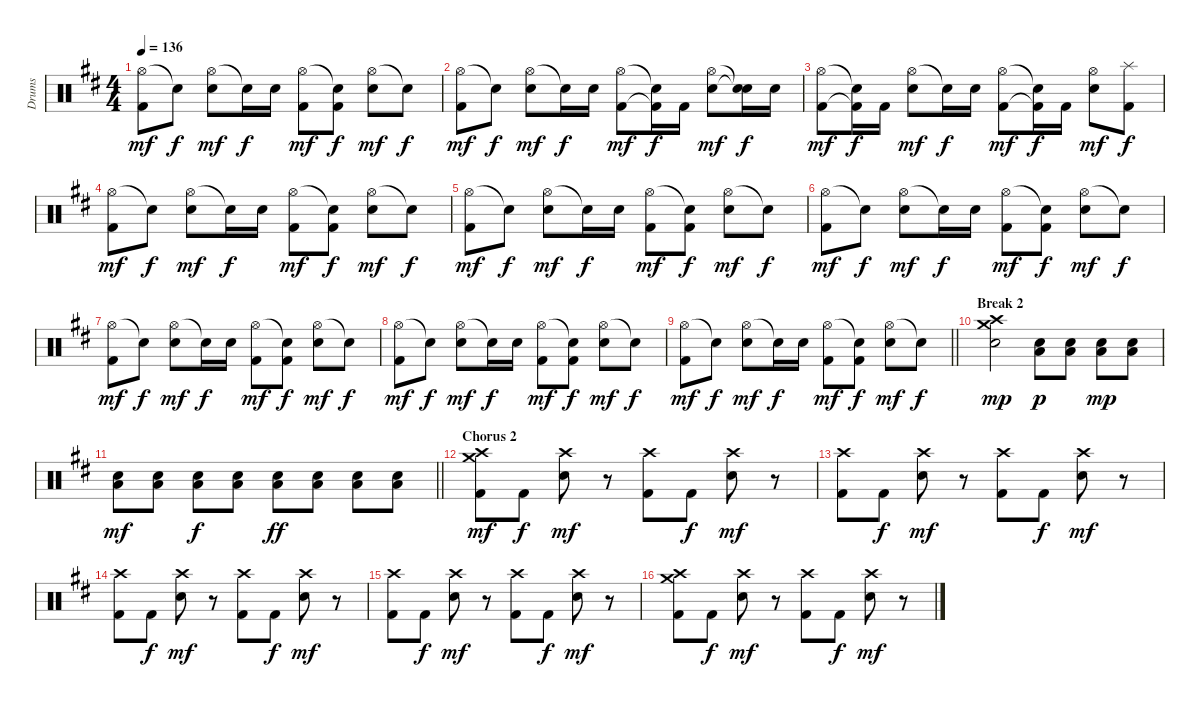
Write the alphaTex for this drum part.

\track ("Drums" "Drums") {instrument percussion}
\staff {score}
\articulation defaults
\ts (4 4)
\tempo 136
\clef neutral
\ks d
("Hi-Hat (open)" "Kick (hit) 2").8{dy mf} "Snare (hit)"{t}.8{dy f} ("Hi-Hat (open)" "Electric Snare (hit)").8{dy mf} "Snare (hit)"{t}.16{dy f} "Electric Snare (hit)".16 ("Hi-Hat (open)" "Kick (hit) 2").8{dy mf} ("Snare (hit)"{t} "Kick (hit) 2").8{dy f} ("Hi-Hat (open)" "Electric Snare (hit)").8{dy mf} "Snare (hit)"{t}.8{dy f} |
("Hi-Hat (open)" "Kick (hit) 2").8{dy mf} "Snare (hit)"{t}.8{dy f} ("Hi-Hat (open)" "Electric Snare (hit)").8{dy mf} "Snare (hit)"{t}.16{dy f} "Electric Snare (hit)".16 ("Hi-Hat (open)" "Kick (hit) 2").8{dy mf} ("Snare (hit)"{t} "Kick (hit) 2"{t}).16{dy f} "Kick (hit) 2".16 ("Hi-Hat (open)" "Electric Snare (hit)").8{dy mf} ("Snare (hit)"{t} "Snare (hit)"{t}).16{dy f} "Electric Snare (hit)".16 |
("Hi-Hat (open)" "Kick (hit) 2").8{dy mf} ("Snare (hit)"{t} "Kick (hit) 2"{t}).16{dy f} "Kick (hit) 2".16 ("Hi-Hat (open)" "Electric Snare (hit)").8{dy mf} "Snare (hit)"{t}.16{dy f} "Electric Snare (hit)".16 ("Hi-Hat (open)" "Kick (hit) 2").8{dy mf} ("Snare (hit)"{t} "Kick (hit) 2"{t}).16{dy f} "Kick (hit) 2".16 ("Hi-Hat (open)" "Electric Snare (hit)").8{dy mf} ("Splash (hit)" "Kick (hit) 2").8{dy f} |
("Hi-Hat (open)" "Kick (hit) 2").8{dy mf} "Snare (hit)"{t}.8{dy f} ("Hi-Hat (open)" "Electric Snare (hit)").8{dy mf} "Snare (hit)"{t}.16{dy f} "Electric Snare (hit)".16 ("Hi-Hat (open)" "Kick (hit) 2").8{dy mf} ("Snare (hit)"{t} "Kick (hit) 2").8{dy f} ("Hi-Hat (open)" "Electric Snare (hit)").8{dy mf} "Snare (hit)"{t}.8{dy f} |
("Hi-Hat (open)" "Kick (hit) 2").8{dy mf} "Snare (hit)"{t}.8{dy f} ("Hi-Hat (open)" "Electric Snare (hit)").8{dy mf} "Snare (hit)"{t}.16{dy f} "Electric Snare (hit)".16 ("Hi-Hat (open)" "Kick (hit) 2").8{dy mf} ("Snare (hit)"{t} "Kick (hit) 2").8{dy f} ("Hi-Hat (open)" "Electric Snare (hit)").8{dy mf} "Snare (hit)"{t}.8{dy f} |
("Hi-Hat (open)" "Kick (hit) 2").8{dy mf} "Snare (hit)"{t}.8{dy f} ("Hi-Hat (open)" "Electric Snare (hit)").8{dy mf} "Snare (hit)"{t}.16{dy f} "Electric Snare (hit)".16 ("Hi-Hat (open)" "Kick (hit) 2").8{dy mf} ("Snare (hit)"{t} "Kick (hit) 2").8{dy f} ("Hi-Hat (open)" "Electric Snare (hit)").8{dy mf} "Snare (hit)"{t}.8{dy f} |
("Hi-Hat (open)" "Kick (hit) 2").8{dy mf} "Snare (hit)"{t}.8{dy f} ("Hi-Hat (open)" "Electric Snare (hit)").8{dy mf} "Snare (hit)"{t}.16{dy f} "Electric Snare (hit)".16 ("Hi-Hat (open)" "Kick (hit) 2").8{dy mf} ("Snare (hit)"{t} "Kick (hit) 2").8{dy f} ("Hi-Hat (open)" "Electric Snare (hit)").8{dy mf} "Snare (hit)"{t}.8{dy f} |
("Hi-Hat (open)" "Kick (hit) 2").8{dy mf} "Snare (hit)"{t}.8{dy f} ("Hi-Hat (open)" "Electric Snare (hit)").8{dy mf} "Snare (hit)"{t}.16{dy f} "Electric Snare (hit)".16 ("Hi-Hat (open)" "Kick (hit) 2").8{dy mf} ("Snare (hit)"{t} "Kick (hit) 2").8{dy f} ("Hi-Hat (open)" "Electric Snare (hit)").8{dy mf} "Snare (hit)"{t}.8{dy f} |
\barLineRight lightlight
("Hi-Hat (open)" "Kick (hit) 2").8{dy mf} "Snare (hit)"{t}.8{dy f} ("Hi-Hat (open)" "Electric Snare (hit)").8{dy mf} "Snare (hit)"{t}.16{dy f} "Electric Snare (hit)".16 ("Hi-Hat (open)" "Kick (hit) 2").8{dy mf} ("Snare (hit)"{t} "Kick (hit) 2").8{dy f} ("Hi-Hat (open)" "Electric Snare (hit)").8{dy mf} "Snare (hit)"{t}.8{dy f} |
\section ("" "Break 2")
("Crash medium (hit)" "Crash high (hit)" "Electric Snare (hit)").2{dy mp} ("Low Tom (hit)" "Electric Snare (hit)").8{dy p} ("Low Tom (hit)" "Electric Snare (hit)").8 ("Low Tom (hit)" "Electric Snare (hit)").8{dy mp} ("Low Tom (hit)" "Electric Snare (hit)").8 |
\barLineRight lightlight
("Low Tom (hit)" "Electric Snare (hit)").8{dy mf} ("Low Tom (hit)" "Electric Snare (hit)").8 ("Low Tom (hit)" "Electric Snare (hit)").8{dy f} ("Low Tom (hit)" "Electric Snare (hit)").8 ("Low Tom (hit)" "Electric Snare (hit)").8{dy ff} ("Low Tom (hit)" "Electric Snare (hit)").8 ("Low Tom (hit)" "Electric Snare (hit)").8 ("Low Tom (hit)" "Electric Snare (hit)").8 |
\section ("" "Chorus 2")
("Crash medium (hit)" "Crash high (hit)" "Kick (hit) 2").8{dy mf} "Kick (hit) 2".8{dy f} ("Crash high (hit)" "Electric Snare (hit)").8{dy mf} r.8 ("Crash high (hit)" "Kick (hit) 2").8 "Kick (hit) 2".8{dy f} ("Crash high (hit)" "Electric Snare (hit)").8{dy mf} r.8 |
("Crash high (hit)" "Kick (hit) 2").8 "Kick (hit) 2".8{dy f} ("Crash high (hit)" "Electric Snare (hit)").8{dy mf} r.8 ("Crash high (hit)" "Kick (hit) 2").8 "Kick (hit) 2".8{dy f} ("Crash high (hit)" "Electric Snare (hit)").8{dy mf} r.8 |
("Crash high (hit)" "Kick (hit) 2").8 "Kick (hit) 2".8{dy f} ("Crash high (hit)" "Electric Snare (hit)").8{dy mf} r.8 ("Crash high (hit)" "Kick (hit) 2").8 "Kick (hit) 2".8{dy f} ("Crash high (hit)" "Electric Snare (hit)").8{dy mf} r.8 |
("Crash high (hit)" "Kick (hit) 2").8 "Kick (hit) 2".8{dy f} ("Crash high (hit)" "Electric Snare (hit)").8{dy mf} r.8 ("Crash high (hit)" "Kick (hit) 2").8 "Kick (hit) 2".8{dy f} ("Crash high (hit)" "Electric Snare (hit)").8{dy mf} r.8 |
("Crash medium (hit)" "Crash high (hit)" "Kick (hit) 2").8 "Kick (hit) 2".8{dy f} ("Crash high (hit)" "Electric Snare (hit)").8{dy mf} r.8 ("Crash high (hit)" "Kick (hit) 2").8 "Kick (hit) 2".8{dy f} ("Crash high (hit)" "Electric Snare (hit)").8{dy mf} r.8
